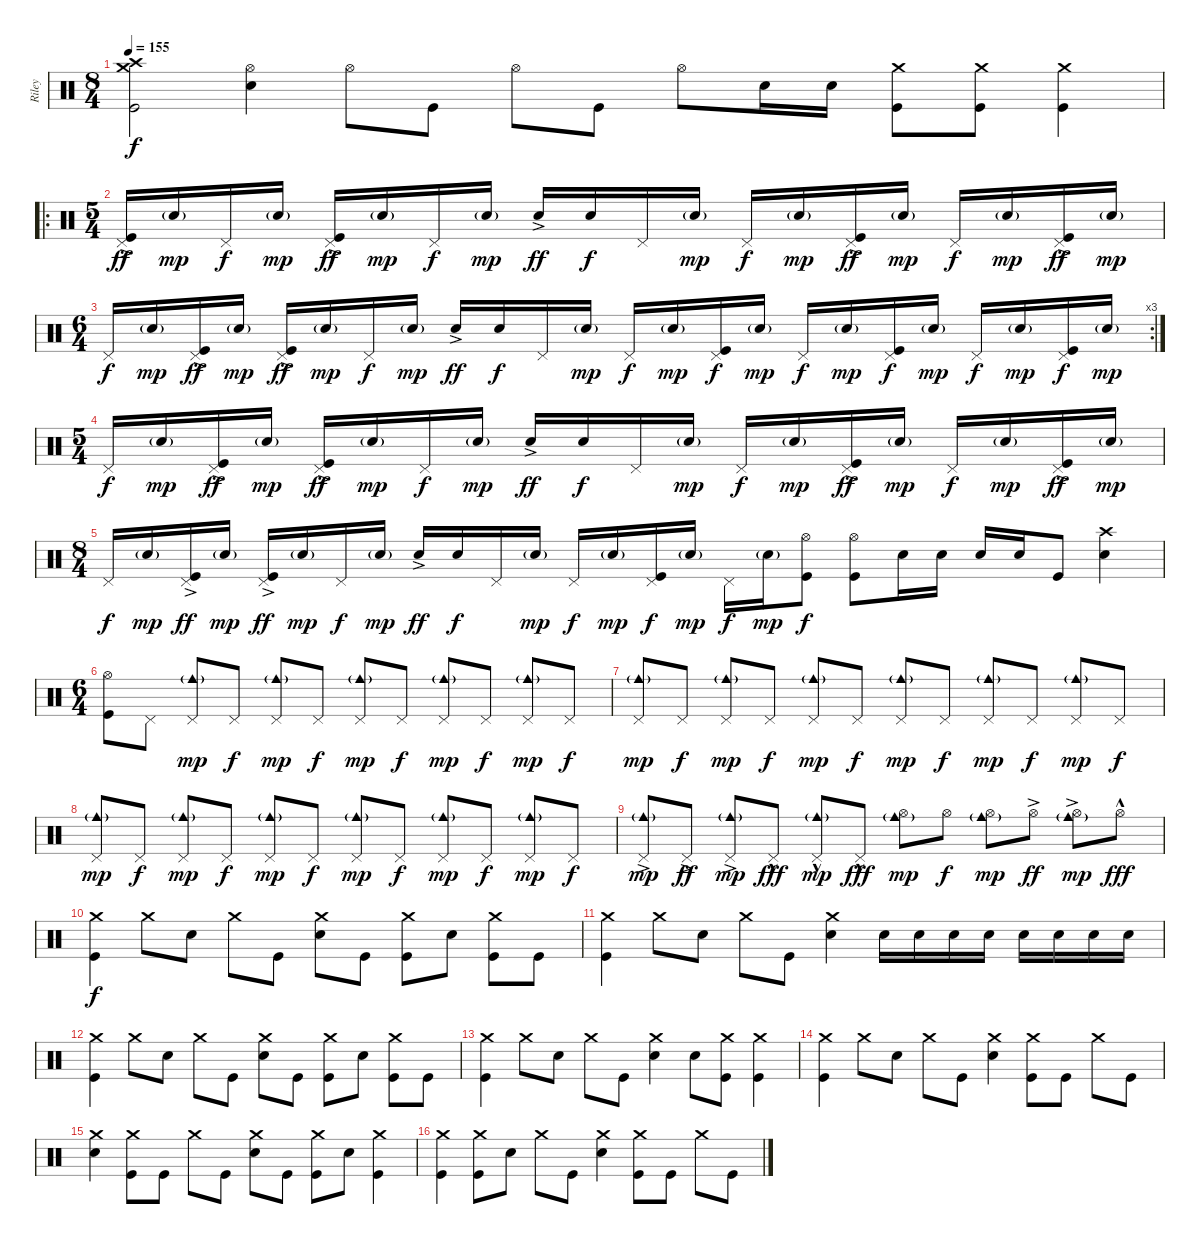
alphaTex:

\track ("Riley" "Riley") {instrument percussion bank 177}
\staff {score}
\articulation defaults
\ts (8 4)
\tempo 155
\clef neutral
\ks c
("Crash medium (hit)" "Crash high (hit)" "Kick (hit)").2{dy f} ("Hi-Hat (open)" "Snare (hit) 2").4 "Hi-Hat (open)".8 "Kick (hit)".8 "Hi-Hat (open)".8 "Kick (hit)".8 "Hi-Hat (open)".8 "Snare (hit) 2".16 "Snare (hit) 2".16 ("Crash medium (hit)" "Kick (hit)").8 ("Crash medium (hit)" "Kick (hit)").8 ("Crash medium (hit)" "Kick (hit)").4 |
\ro
\ts (5 4)
("Pedal Hi-Hat (hit)"{ac} "Kick (hit)").16{dy ff} "Snare (hit) 2"{g}.16{dy mp} "Pedal Hi-Hat (hit)".16{dy f} "Snare (hit) 2"{g}.16{dy mp} ("Pedal Hi-Hat (hit)"{ac} "Kick (hit)").16{dy ff} "Snare (hit) 2"{g}.16{dy mp} "Pedal Hi-Hat (hit)".16{dy f} "Snare (hit) 2"{g}.16{dy mp} "Snare (hit) 2"{ac}.16{dy ff} "Snare (hit) 2".16{dy f} "Pedal Hi-Hat (hit)".16 "Snare (hit) 2"{g}.16{dy mp} "Pedal Hi-Hat (hit)".16{dy f} "Snare (hit) 2"{g}.16{dy mp} ("Pedal Hi-Hat (hit)"{ac} "Kick (hit)").16{dy ff} "Snare (hit) 2"{g}.16{dy mp} "Pedal Hi-Hat (hit)".16{dy f} "Snare (hit) 2"{g}.16{dy mp} ("Pedal Hi-Hat (hit)"{ac} "Kick (hit)").16{dy ff} "Snare (hit) 2"{g}.16{dy mp} |
\rc 3
\ts (6 4)
"Pedal Hi-Hat (hit)".16{dy f} "Snare (hit) 2"{g}.16{dy mp} ("Pedal Hi-Hat (hit)"{ac} "Kick (hit)").16{dy ff} "Snare (hit) 2"{g}.16{dy mp} ("Pedal Hi-Hat (hit)"{ac} "Kick (hit)").16{dy ff} "Snare (hit) 2"{g}.16{dy mp} "Pedal Hi-Hat (hit)".16{dy f} "Snare (hit) 2"{g}.16{dy mp} "Snare (hit) 2"{ac}.16{dy ff} "Snare (hit) 2".16{dy f} "Pedal Hi-Hat (hit)".16 "Snare (hit) 2"{g}.16{dy mp} "Pedal Hi-Hat (hit)".16{dy f} "Snare (hit) 2"{g}.16{dy mp} ("Pedal Hi-Hat (hit)" "Kick (hit)").16{dy f} "Snare (hit) 2"{g}.16{dy mp} "Pedal Hi-Hat (hit)".16{dy f} "Snare (hit) 2"{g}.16{dy mp} ("Pedal Hi-Hat (hit)" "Kick (hit)").16{dy f} "Snare (hit) 2"{g}.16{dy mp} "Pedal Hi-Hat (hit)".16{dy f} "Snare (hit) 2"{g}.16{dy mp} ("Pedal Hi-Hat (hit)" "Kick (hit)").16{dy f} "Snare (hit) 2"{g}.16{dy mp} |
\ts (5 4)
"Pedal Hi-Hat (hit)".16{dy f} "Snare (hit) 2"{g}.16{dy mp} ("Pedal Hi-Hat (hit)"{ac} "Kick (hit)").16{dy ff} "Snare (hit) 2"{g}.16{dy mp} ("Pedal Hi-Hat (hit)"{ac} "Kick (hit)").16{dy ff} "Snare (hit) 2"{g}.16{dy mp} "Pedal Hi-Hat (hit)".16{dy f} "Snare (hit) 2"{g}.16{dy mp} "Snare (hit) 2"{ac}.16{dy ff} "Snare (hit) 2".16{dy f} "Pedal Hi-Hat (hit)".16 "Snare (hit) 2"{g}.16{dy mp} "Pedal Hi-Hat (hit)".16{dy f} "Snare (hit) 2"{g}.16{dy mp} ("Pedal Hi-Hat (hit)"{ac} "Kick (hit)").16{dy ff} "Snare (hit) 2"{g}.16{dy mp} "Pedal Hi-Hat (hit)".16{dy f} "Snare (hit) 2"{g}.16{dy mp} ("Pedal Hi-Hat (hit)"{ac} "Kick (hit)").16{dy ff} "Snare (hit) 2"{g}.16{dy mp} |
\ts (8 4)
"Pedal Hi-Hat (hit)".16{dy f} "Snare (hit) 2"{g}.16{dy mp} ("Pedal Hi-Hat (hit)"{ac} "Kick (hit)").16{dy ff} "Snare (hit) 2"{g}.16{dy mp} ("Pedal Hi-Hat (hit)"{ac} "Kick (hit)").16{dy ff} "Snare (hit) 2"{g}.16{dy mp} "Pedal Hi-Hat (hit)".16{dy f} "Snare (hit) 2"{g}.16{dy mp} "Snare (hit) 2"{ac}.16{dy ff} "Snare (hit) 2".16{dy f} "Pedal Hi-Hat (hit)".16 "Snare (hit) 2"{g}.16{dy mp} "Pedal Hi-Hat (hit)".16{dy f} "Snare (hit) 2"{g}.16{dy mp} ("Pedal Hi-Hat (hit)" "Kick (hit)").16{dy f} "Snare (hit) 2"{g}.16{dy mp} "Pedal Hi-Hat (hit)".16{dy f} "Snare (hit) 2"{g}.16{dy mp} ("Hi-Hat (open)" "Kick (hit)").8{dy f} ("Hi-Hat (open)" "Kick (hit)").8 "Snare (hit) 2".16 "Snare (hit) 2".16 "Snare (hit) 2".16 "Snare (hit) 2".16 "Kick (hit)".8 ("Crash high (hit)" "Snare (hit) 2").4 |
\ts (6 4)
("Hi-Hat (open)" "Kick (hit)").8 "Pedal Hi-Hat (hit)".8 ("Pedal Hi-Hat (hit)" "Cowbell medium (hit)"{g}).8{dy mp} "Pedal Hi-Hat (hit)".8{dy f} ("Pedal Hi-Hat (hit)" "Cowbell medium (hit)"{g}).8{dy mp} "Pedal Hi-Hat (hit)".8{dy f} ("Pedal Hi-Hat (hit)" "Cowbell medium (hit)"{g}).8{dy mp} "Pedal Hi-Hat (hit)".8{dy f} ("Pedal Hi-Hat (hit)" "Cowbell medium (hit)"{g}).8{dy mp} "Pedal Hi-Hat (hit)".8{dy f} ("Pedal Hi-Hat (hit)" "Cowbell medium (hit)"{g}).8{dy mp} "Pedal Hi-Hat (hit)".8{dy f} |
("Pedal Hi-Hat (hit)" "Cowbell medium (hit)"{g}).8{dy mp} "Pedal Hi-Hat (hit)".8{dy f} ("Pedal Hi-Hat (hit)" "Cowbell medium (hit)"{g}).8{dy mp} "Pedal Hi-Hat (hit)".8{dy f} ("Pedal Hi-Hat (hit)" "Cowbell medium (hit)"{g}).8{dy mp} "Pedal Hi-Hat (hit)".8{dy f} ("Pedal Hi-Hat (hit)" "Cowbell medium (hit)"{g}).8{dy mp} "Pedal Hi-Hat (hit)".8{dy f} ("Pedal Hi-Hat (hit)" "Cowbell medium (hit)"{g}).8{dy mp} "Pedal Hi-Hat (hit)".8{dy f} ("Pedal Hi-Hat (hit)" "Cowbell medium (hit)"{g}).8{dy mp} "Pedal Hi-Hat (hit)".8{dy f} |
("Pedal Hi-Hat (hit)" "Cowbell medium (hit)"{g}).8{dy mp} "Pedal Hi-Hat (hit)".8{dy f} ("Pedal Hi-Hat (hit)" "Cowbell medium (hit)"{g}).8{dy mp} "Pedal Hi-Hat (hit)".8{dy f} ("Pedal Hi-Hat (hit)" "Cowbell medium (hit)"{g}).8{dy mp} "Pedal Hi-Hat (hit)".8{dy f} ("Pedal Hi-Hat (hit)" "Cowbell medium (hit)"{g}).8{dy mp} "Pedal Hi-Hat (hit)".8{dy f} ("Pedal Hi-Hat (hit)" "Cowbell medium (hit)"{g}).8{dy mp} "Pedal Hi-Hat (hit)".8{dy f} ("Pedal Hi-Hat (hit)" "Cowbell medium (hit)"{g}).8{dy mp} "Pedal Hi-Hat (hit)".8{dy f} |
("Pedal Hi-Hat (hit)"{ac} "Cowbell medium (hit)"{g}).8{dy mp} "Pedal Hi-Hat (hit)"{ac}.8{dy ff} ("Pedal Hi-Hat (hit)"{ac} "Cowbell medium (hit)"{g}).8{dy mp} "Pedal Hi-Hat (hit)"{hac}.8{dy fff} ("Pedal Hi-Hat (hit)"{hac} "Cowbell medium (hit)"{g}).8{dy mp} "Pedal Hi-Hat (hit)"{hac}.8{dy fff} ("Hi-Hat (open)" "Cowbell medium (hit)"{g}).8{dy mp} "Hi-Hat (open)".8{dy f} ("Hi-Hat (open)" "Cowbell medium (hit)"{g}).8{dy mp} "Hi-Hat (open)"{ac}.8{dy ff} ("Hi-Hat (open)"{ac} "Cowbell medium (hit)"{g}).8{dy mp} "Hi-Hat (open)"{hac}.8{dy fff} |
("Crash medium (hit)" "Kick (hit)").4{dy f} "Crash medium (hit)".8 "Snare (hit) 2".8 "Crash medium (hit)".8 "Kick (hit)".8 ("Crash medium (hit)" "Snare (hit) 2").8 "Kick (hit)".8 ("Crash medium (hit)" "Kick (hit)").8 "Snare (hit) 2".8 ("Crash medium (hit)" "Kick (hit)").8 "Kick (hit)".8 |
("Crash medium (hit)" "Kick (hit)").4 "Crash medium (hit)".8 "Snare (hit) 2".8 "Crash medium (hit)".8 "Kick (hit)".8 ("Crash medium (hit)" "Snare (hit) 2").4 "Snare (hit) 2".16 "Snare (hit) 2".16 "Snare (hit) 2".16 "Snare (hit) 2".16 "Snare (hit) 2".16 "Snare (hit) 2".16 "Snare (hit) 2".16 "Snare (hit) 2".16 |
("Crash medium (hit)" "Kick (hit)").4 "Crash medium (hit)".8 "Snare (hit) 2".8 "Crash medium (hit)".8 "Kick (hit)".8 ("Crash medium (hit)" "Snare (hit) 2").8 "Kick (hit)".8 ("Crash medium (hit)" "Kick (hit)").8 "Snare (hit) 2".8 ("Crash medium (hit)" "Kick (hit)").8 "Kick (hit)".8 |
("Crash medium (hit)" "Kick (hit)").4 "Crash medium (hit)".8 "Snare (hit) 2".8 "Crash medium (hit)".8 "Kick (hit)".8 ("Crash medium (hit)" "Snare (hit) 2").4 "Snare (hit) 2".8 ("Crash medium (hit)" "Kick (hit)").8 ("Crash medium (hit)" "Kick (hit)").4 |
("Crash medium (hit)" "Kick (hit)").4 "Crash medium (hit)".8 "Snare (hit) 2".8 "Crash medium (hit)".8 "Kick (hit)".8 ("Crash medium (hit)" "Snare (hit) 2").4 ("Crash medium (hit)" "Kick (hit)").8 "Kick (hit)".8 "Crash medium (hit)".8 "Kick (hit)".8 |
("Crash medium (hit)" "Snare (hit) 2").4 ("Crash medium (hit)" "Kick (hit)").8 "Kick (hit)".8 "Crash medium (hit)".8 "Kick (hit)".8 ("Crash medium (hit)" "Snare (hit) 2").8 "Kick (hit)".8 ("Crash medium (hit)" "Kick (hit)").8 "Snare (hit) 2".8 ("Crash medium (hit)" "Kick (hit)").4 |
("Crash medium (hit)" "Kick (hit)").4 ("Crash medium (hit)" "Kick (hit)").8 "Snare (hit) 2".8 "Crash medium (hit)".8 "Kick (hit)".8 ("Crash medium (hit)" "Snare (hit) 2").4 ("Crash medium (hit)" "Kick (hit)").8 "Kick (hit)".8 "Crash medium (hit)".8 "Kick (hit)".8
